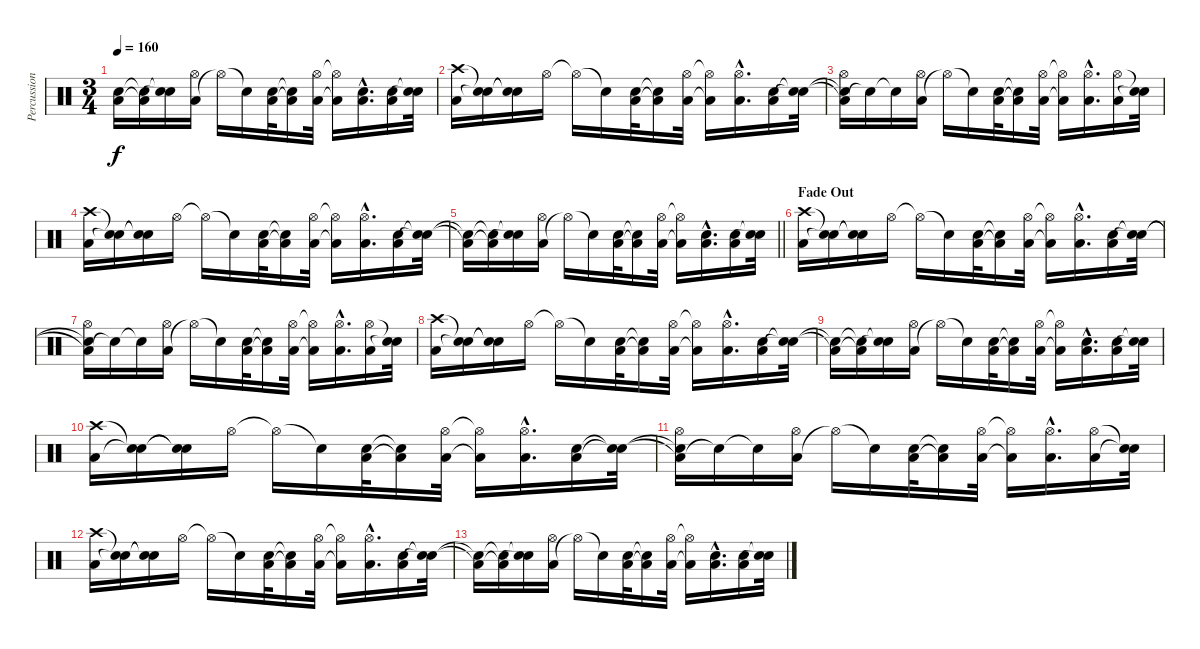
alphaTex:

\track ("Percussion 1" "Percussion") {instrument percussion}
\staff {score}
\articulation defaults
\ts (3 4)
\tempo 160
\clef neutral
\ks c
("Low Floor Tom (hit)"{t} "Snare (hit)"{t}).16{dy f} ("Low Floor Tom (hit)"{t} "Snare (hit)"{t}).16 ("Snare (hit)"{t} "Snare (hit)"{t}).16 ("Low Floor Tom (hit)" "Hi-Hat (open)").16 "Hi-Hat (open)"{t}.16 "Snare (hit)"{t}.16 ("Low Floor Tom (hit)" "Snare (hit) 2").32 ("Low Floor Tom (hit)"{t} "Snare (hit)"{t}).16 ("Low Floor Tom (hit)" "Hi-Hat (open)").32 ("Low Floor Tom (hit)"{t} "Hi-Hat (open)"{t}).16 ("Low Floor Tom (hit)"{hac} "Snare (hit) 2"{hac}).16{d} ("Low Floor Tom (hit)" "Snare (hit) 2").16 ("Snare (hit)"{t} "Snare (hit)"{t}).32 |
("Low Floor Tom (hit)" "Crash high (hit)").16 ("Snare (hit)"{t} "Snare (hit)"{t}).16 ("Snare (hit)"{t} "Snare (hit)"{t}).16 "Hi-Hat (open)".16 "Hi-Hat (open)"{t}.16 "Snare (hit)"{t}.16 ("Low Floor Tom (hit)" "Snare (hit) 2").32 ("Low Floor Tom (hit)"{t} "Snare (hit)"{t}).16 ("Low Floor Tom (hit)" "Hi-Hat (open)").32 ("Low Floor Tom (hit)"{t} "Hi-Hat (open)"{t}).16 ("Low Floor Tom (hit)"{hac} "Hi-Hat (open)"{hac}).16{d} ("Low Floor Tom (hit)" "Snare (hit) 2").16 ("Snare (hit)"{t} "Snare (hit)"{t}).32 |
("Low Floor Tom (hit)"{t} "Snare (hit)"{t} "Hi-Hat (open)").16 "Snare (hit)"{t}.16 "Snare (hit)"{t}.16 ("Low Floor Tom (hit)" "Hi-Hat (open)").16 "Hi-Hat (open)"{t}.16 "Snare (hit)"{t}.16 ("Low Floor Tom (hit)" "Snare (hit) 2").32 ("Low Floor Tom (hit)"{t} "Snare (hit)"{t}).16 ("Low Floor Tom (hit)" "Hi-Hat (open)").32 ("Low Floor Tom (hit)"{t} "Hi-Hat (open)"{t}).16 ("Low Floor Tom (hit)"{hac} "Hi-Hat (open)"{hac}).16{d} ("Low Floor Tom (hit)" "Hi-Hat (open)").16 ("Snare (hit)"{t} "Snare (hit)"{t}).32 |
("Low Floor Tom (hit)" "Crash high (hit)").16 ("Snare (hit)"{t} "Snare (hit)"{t}).16 ("Snare (hit)"{t} "Snare (hit)"{t}).16 "Hi-Hat (open)".16 "Hi-Hat (open)"{t}.16 "Snare (hit)"{t}.16 ("Low Floor Tom (hit)" "Snare (hit) 2").32 ("Low Floor Tom (hit)"{t} "Snare (hit)"{t}).16 ("Low Floor Tom (hit)" "Hi-Hat (open)").32 ("Low Floor Tom (hit)"{t} "Hi-Hat (open)"{t}).16 ("Low Floor Tom (hit)"{hac} "Hi-Hat (open)"{hac}).16{d} ("Low Floor Tom (hit)" "Snare (hit) 2").16 ("Snare (hit)"{t} "Snare (hit)"{t}).32 |
\barLineRight lightlight
("Low Floor Tom (hit)"{t} "Snare (hit)"{t}).16 ("Low Floor Tom (hit)"{t} "Snare (hit)"{t}).16 ("Snare (hit)"{t} "Snare (hit)"{t}).16 ("Low Floor Tom (hit)" "Hi-Hat (open)").16 "Hi-Hat (open)"{t}.16 "Snare (hit)"{t}.16 ("Low Floor Tom (hit)" "Snare (hit) 2").32 ("Low Floor Tom (hit)"{t} "Snare (hit)"{t}).16 ("Low Floor Tom (hit)" "Hi-Hat (open)").32 ("Low Floor Tom (hit)"{t} "Hi-Hat (open)"{t}).16 ("Low Floor Tom (hit)"{hac} "Snare (hit) 2"{hac}).16{d} ("Low Floor Tom (hit)" "Snare (hit) 2").16 ("Snare (hit)"{t} "Snare (hit)"{t}).32 |
\section ("" "Fade Out")
("Low Floor Tom (hit)" "Crash high (hit)").16{volume 8} ("Snare (hit)"{t} "Snare (hit)"{t}).16 ("Snare (hit)"{t} "Snare (hit)"{t}).16 "Hi-Hat (open)".16 "Hi-Hat (open)"{t}.16 "Snare (hit)"{t}.16 ("Low Floor Tom (hit)" "Snare (hit) 2").32 ("Low Floor Tom (hit)"{t} "Snare (hit)"{t}).16 ("Low Floor Tom (hit)" "Hi-Hat (open)").32 ("Low Floor Tom (hit)"{t} "Hi-Hat (open)"{t}).16 ("Low Floor Tom (hit)"{hac} "Hi-Hat (open)"{hac}).16{d} ("Low Floor Tom (hit)" "Snare (hit) 2").16 ("Snare (hit)"{t} "Snare (hit)"{t}).32 |
("Low Floor Tom (hit)"{t} "Snare (hit)"{t} "Hi-Hat (open)").16 "Snare (hit)"{t}.16 "Snare (hit)"{t}.16 ("Low Floor Tom (hit)" "Hi-Hat (open)").16 "Hi-Hat (open)"{t}.16 "Snare (hit)"{t}.16 ("Low Floor Tom (hit)" "Snare (hit) 2").32 ("Low Floor Tom (hit)"{t} "Snare (hit)"{t}).16 ("Low Floor Tom (hit)" "Hi-Hat (open)").32 ("Low Floor Tom (hit)"{t} "Hi-Hat (open)"{t}).16 ("Low Floor Tom (hit)"{hac} "Hi-Hat (open)"{hac}).16{d} ("Low Floor Tom (hit)" "Hi-Hat (open)").16 ("Snare (hit)"{t} "Snare (hit)"{t}).32 |
("Low Floor Tom (hit)" "Crash high (hit)").16 ("Snare (hit)"{t} "Snare (hit)"{t}).16 ("Snare (hit)"{t} "Snare (hit)"{t}).16 "Hi-Hat (open)".16 "Hi-Hat (open)"{t}.16 "Snare (hit)"{t}.16 ("Low Floor Tom (hit)" "Snare (hit) 2").32 ("Low Floor Tom (hit)"{t} "Snare (hit)"{t}).16 ("Low Floor Tom (hit)" "Hi-Hat (open)").32 ("Low Floor Tom (hit)"{t} "Hi-Hat (open)"{t}).16 ("Low Floor Tom (hit)"{hac} "Hi-Hat (open)"{hac}).16{d} ("Low Floor Tom (hit)" "Snare (hit) 2").16 ("Snare (hit)"{t} "Snare (hit)"{t}).32 |
("Low Floor Tom (hit)"{t} "Snare (hit)"{t}).16 ("Low Floor Tom (hit)"{t} "Snare (hit)"{t}).16 ("Snare (hit)"{t} "Snare (hit)"{t}).16 ("Low Floor Tom (hit)" "Hi-Hat (open)").16 "Hi-Hat (open)"{t}.16 "Snare (hit)"{t}.16 ("Low Floor Tom (hit)" "Snare (hit) 2").32 ("Low Floor Tom (hit)"{t} "Snare (hit)"{t}).16 ("Low Floor Tom (hit)" "Hi-Hat (open)").32 ("Low Floor Tom (hit)"{t} "Hi-Hat (open)"{t}).16 ("Low Floor Tom (hit)"{hac} "Snare (hit) 2"{hac}).16{d} ("Low Floor Tom (hit)" "Snare (hit) 2").16 ("Snare (hit)"{t} "Snare (hit)"{t}).32 |
("Low Floor Tom (hit)" "Crash high (hit)").16{volume 0} ("Snare (hit)"{t} "Snare (hit)"{t}).16 ("Snare (hit)"{t} "Snare (hit)"{t}).16 "Hi-Hat (open)".16 "Hi-Hat (open)"{t}.16 "Snare (hit)"{t}.16 ("Low Floor Tom (hit)" "Snare (hit) 2").32 ("Low Floor Tom (hit)"{t} "Snare (hit)"{t}).16 ("Low Floor Tom (hit)" "Hi-Hat (open)").32 ("Low Floor Tom (hit)"{t} "Hi-Hat (open)"{t}).16 ("Low Floor Tom (hit)"{hac} "Hi-Hat (open)"{hac}).16{d} ("Low Floor Tom (hit)" "Snare (hit) 2").16 ("Snare (hit)"{t} "Snare (hit)"{t}).32 |
("Low Floor Tom (hit)"{t} "Snare (hit)"{t} "Hi-Hat (open)").16 "Snare (hit)"{t}.16 "Snare (hit)"{t}.16 ("Low Floor Tom (hit)" "Hi-Hat (open)").16 "Hi-Hat (open)"{t}.16 "Snare (hit)"{t}.16 ("Low Floor Tom (hit)" "Snare (hit) 2").32 ("Low Floor Tom (hit)"{t} "Snare (hit)"{t}).16 ("Low Floor Tom (hit)" "Hi-Hat (open)").32 ("Low Floor Tom (hit)"{t} "Hi-Hat (open)"{t}).16 ("Low Floor Tom (hit)"{hac} "Hi-Hat (open)"{hac}).16{d} ("Low Floor Tom (hit)" "Hi-Hat (open)").16 ("Snare (hit)"{t} "Snare (hit)"{t}).32 |
("Low Floor Tom (hit)" "Crash high (hit)").16 ("Snare (hit)"{t} "Snare (hit)"{t}).16 ("Snare (hit)"{t} "Snare (hit)"{t}).16 "Hi-Hat (open)".16 "Hi-Hat (open)"{t}.16 "Snare (hit)"{t}.16 ("Low Floor Tom (hit)" "Snare (hit) 2").32 ("Low Floor Tom (hit)"{t} "Snare (hit)"{t}).16 ("Low Floor Tom (hit)" "Hi-Hat (open)").32 ("Low Floor Tom (hit)"{t} "Hi-Hat (open)"{t}).16 ("Low Floor Tom (hit)"{hac} "Hi-Hat (open)"{hac}).16{d} ("Low Floor Tom (hit)" "Snare (hit) 2").16 ("Snare (hit)"{t} "Snare (hit)"{t}).32 |
("Low Floor Tom (hit)"{t} "Snare (hit)"{t}).16 ("Low Floor Tom (hit)"{t} "Snare (hit)"{t}).16 ("Snare (hit)"{t} "Snare (hit)"{t}).16 ("Low Floor Tom (hit)" "Hi-Hat (open)").16 "Hi-Hat (open)"{t}.16 "Snare (hit)"{t}.16 ("Low Floor Tom (hit)" "Snare (hit) 2").32 ("Low Floor Tom (hit)"{t} "Snare (hit)"{t}).16 ("Low Floor Tom (hit)" "Hi-Hat (open)").32 ("Low Floor Tom (hit)"{t} "Hi-Hat (open)"{t}).16 ("Low Floor Tom (hit)"{hac} "Snare (hit) 2"{hac}).16{d} ("Low Floor Tom (hit)" "Snare (hit) 2").16 ("Snare (hit)"{t} "Snare (hit)"{t}).32
